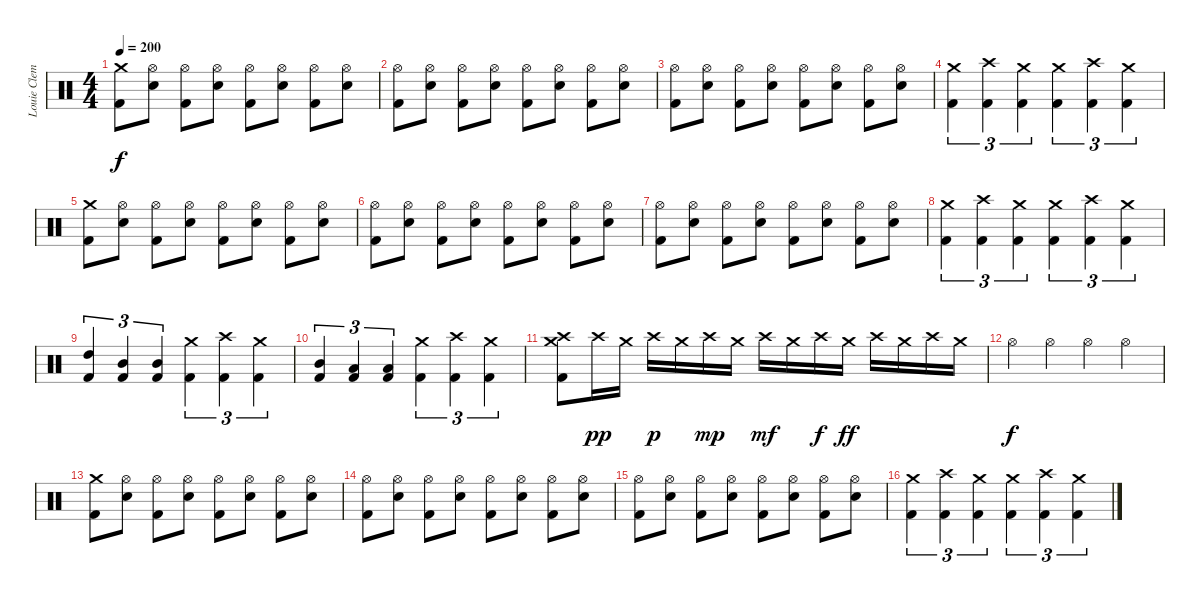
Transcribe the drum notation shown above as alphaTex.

\track ("Louie Clemente" "Louie Clem") {instrument percussion}
\staff {score}
\articulation defaults
\ts (4 4)
\tempo 200
\clef neutral
\ks c
("Crash medium (hit)" "Kick (hit) 2").8{dy f} ("Hi-Hat (open)" "Snare (hit) 2").8 ("Hi-Hat (open)" "Kick (hit) 2").8 ("Hi-Hat (open)" "Snare (hit) 2").8 ("Hi-Hat (open)" "Kick (hit) 2").8 ("Hi-Hat (open)" "Snare (hit) 2").8 ("Hi-Hat (open)" "Kick (hit) 2").8 ("Hi-Hat (open)" "Snare (hit) 2").8 |
("Hi-Hat (open)" "Kick (hit) 2").8 ("Hi-Hat (open)" "Snare (hit) 2").8 ("Hi-Hat (open)" "Kick (hit) 2").8 ("Hi-Hat (open)" "Snare (hit) 2").8 ("Hi-Hat (open)" "Kick (hit) 2").8 ("Hi-Hat (open)" "Snare (hit) 2").8 ("Hi-Hat (open)" "Kick (hit) 2").8 ("Hi-Hat (open)" "Snare (hit) 2").8 |
("Hi-Hat (open)" "Kick (hit) 2").8 ("Hi-Hat (open)" "Snare (hit) 2").8 ("Hi-Hat (open)" "Kick (hit) 2").8 ("Hi-Hat (open)" "Snare (hit) 2").8 ("Hi-Hat (open)" "Kick (hit) 2").8 ("Hi-Hat (open)" "Snare (hit) 2").8 ("Hi-Hat (open)" "Kick (hit) 2").8 ("Hi-Hat (open)" "Snare (hit) 2").8 |
("Crash medium (hit)" "Kick (hit) 2").4{tu (3 2)} ("Crash high (hit)" "Kick (hit) 2").4{tu (3 2)} ("Crash medium (hit)" "Kick (hit) 2").4{tu (3 2)} ("Crash medium (hit)" "Kick (hit) 2").4{tu (3 2)} ("Crash high (hit)" "Kick (hit) 2").4{tu (3 2)} ("Crash medium (hit)" "Kick (hit) 2").4{tu (3 2)} |
("Crash medium (hit)" "Kick (hit) 2").8 ("Hi-Hat (open)" "Snare (hit) 2").8 ("Hi-Hat (open)" "Kick (hit) 2").8 ("Hi-Hat (open)" "Snare (hit) 2").8 ("Hi-Hat (open)" "Kick (hit) 2").8 ("Hi-Hat (open)" "Snare (hit) 2").8 ("Hi-Hat (open)" "Kick (hit) 2").8 ("Hi-Hat (open)" "Snare (hit) 2").8 |
("Hi-Hat (open)" "Kick (hit) 2").8 ("Hi-Hat (open)" "Snare (hit) 2").8 ("Hi-Hat (open)" "Kick (hit) 2").8 ("Hi-Hat (open)" "Snare (hit) 2").8 ("Hi-Hat (open)" "Kick (hit) 2").8 ("Hi-Hat (open)" "Snare (hit) 2").8 ("Hi-Hat (open)" "Kick (hit) 2").8 ("Hi-Hat (open)" "Snare (hit) 2").8 |
("Hi-Hat (open)" "Kick (hit) 2").8 ("Hi-Hat (open)" "Snare (hit) 2").8 ("Hi-Hat (open)" "Kick (hit) 2").8 ("Hi-Hat (open)" "Snare (hit) 2").8 ("Hi-Hat (open)" "Kick (hit) 2").8 ("Hi-Hat (open)" "Snare (hit) 2").8 ("Hi-Hat (open)" "Kick (hit) 2").8 ("Hi-Hat (open)" "Snare (hit) 2").8 |
("Crash medium (hit)" "Kick (hit) 2").4{tu (3 2)} ("Crash high (hit)" "Kick (hit) 2").4{tu (3 2)} ("Crash medium (hit)" "Kick (hit) 2").4{tu (3 2)} ("Crash medium (hit)" "Kick (hit) 2").4{tu (3 2)} ("Crash high (hit)" "Kick (hit) 2").4{tu (3 2)} ("Crash medium (hit)" "Kick (hit) 2").4{tu (3 2)} |
("High Tom (hit)" "Kick (hit) 2").4{tu (3 2)} ("Mid Tom (hit)" "Kick (hit) 2").4{tu (3 2)} ("Mid Tom (hit)" "Kick (hit) 2").4{tu (3 2)} ("Crash medium (hit)" "Kick (hit) 2").4{tu (3 2)} ("Crash high (hit)" "Kick (hit) 2").4{tu (3 2)} ("Crash medium (hit)" "Kick (hit) 2").4{tu (3 2)} |
("Mid Tom (hit)" "Kick (hit) 2").4{tu (3 2)} ("Low Tom (hit)" "Kick (hit) 2").4{tu (3 2)} ("Low Tom (hit)" "Kick (hit) 2").4{tu (3 2)} ("Crash medium (hit)" "Kick (hit) 2").4{tu (3 2)} ("Crash high (hit)" "Kick (hit) 2").4{tu (3 2)} ("Crash medium (hit)" "Kick (hit) 2").4{tu (3 2)} |
("Crash high (hit)" "Crash medium (hit)" "Kick (hit) 2").8 "Crash high (hit)".16{dy pp} "Crash medium (hit)".16 "Crash high (hit)".16{dy p} "Crash medium (hit)".16 "Crash high (hit)".16{dy mp} "Crash medium (hit)".16 "Crash high (hit)".16{dy mf} "Crash medium (hit)".16 "Crash high (hit)".16{dy f} "Crash medium (hit)".16{dy ff} "Crash high (hit)".16 "Crash medium (hit)".16 "Crash high (hit)".16 "Crash medium (hit)".16 |
"Hi-Hat (open)".4{dy f} "Hi-Hat (open)".4 "Hi-Hat (open)".4 "Hi-Hat (open)".4 |
("Crash medium (hit)" "Kick (hit) 2").8 ("Hi-Hat (open)" "Snare (hit) 2").8 ("Hi-Hat (open)" "Kick (hit) 2").8 ("Hi-Hat (open)" "Snare (hit) 2").8 ("Hi-Hat (open)" "Kick (hit) 2").8 ("Hi-Hat (open)" "Snare (hit) 2").8 ("Hi-Hat (open)" "Kick (hit) 2").8 ("Hi-Hat (open)" "Snare (hit) 2").8 |
("Hi-Hat (open)" "Kick (hit) 2").8 ("Hi-Hat (open)" "Snare (hit) 2").8 ("Hi-Hat (open)" "Kick (hit) 2").8 ("Hi-Hat (open)" "Snare (hit) 2").8 ("Hi-Hat (open)" "Kick (hit) 2").8 ("Hi-Hat (open)" "Snare (hit) 2").8 ("Hi-Hat (open)" "Kick (hit) 2").8 ("Hi-Hat (open)" "Snare (hit) 2").8 |
("Hi-Hat (open)" "Kick (hit) 2").8 ("Hi-Hat (open)" "Snare (hit) 2").8 ("Hi-Hat (open)" "Kick (hit) 2").8 ("Hi-Hat (open)" "Snare (hit) 2").8 ("Hi-Hat (open)" "Kick (hit) 2").8 ("Hi-Hat (open)" "Snare (hit) 2").8 ("Hi-Hat (open)" "Kick (hit) 2").8 ("Hi-Hat (open)" "Snare (hit) 2").8 |
("Crash medium (hit)" "Kick (hit) 2").4{tu (3 2)} ("Crash high (hit)" "Kick (hit) 2").4{tu (3 2)} ("Crash medium (hit)" "Kick (hit) 2").4{tu (3 2)} ("Crash medium (hit)" "Kick (hit) 2").4{tu (3 2)} ("Crash high (hit)" "Kick (hit) 2").4{tu (3 2)} ("Crash medium (hit)" "Kick (hit) 2").4{tu (3 2)}
